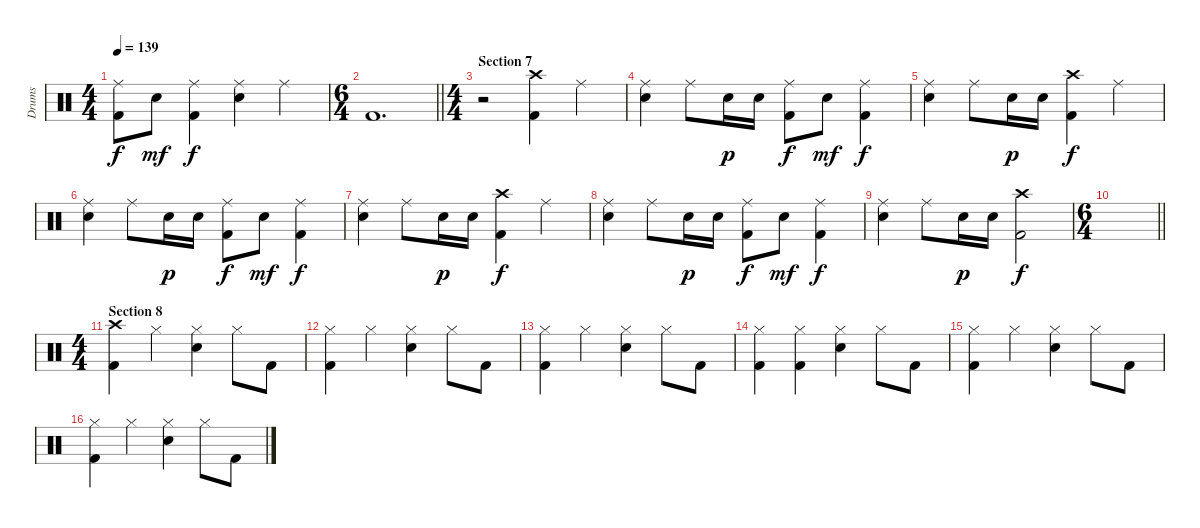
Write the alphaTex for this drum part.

\track ("Drums" "Drums") {instrument percussion}
\staff {score}
\articulation defaults
\ts (4 4)
\tempo 139
\clef neutral
\ks c
("Ride (middle)" "Kick (hit) 2").8{dy f} "Electric Snare (hit)".8{dy mf} ("Ride (middle)" "Kick (hit) 2").4{dy f} ("Ride (middle)" "Electric Snare (hit)").4 "Ride (middle)".4 |
\ts (6 4)
\barLineRight lightlight "Kick (hit) 2".1{d}
|
\ts (4 4)
\section ("" "Section 7")
r.2 ("Crash high (hit)" "Kick (hit) 2").4 "Ride (middle)".4 |
("Ride (middle)" "Electric Snare (hit)").4 "Ride (middle)".8 "Electric Snare (hit)".16{dy p} "Electric Snare (hit)".16 ("Ride (middle)" "Kick (hit) 2").8{dy f} "Electric Snare (hit)".8{dy mf} ("Ride (middle)" "Kick (hit) 2").4{dy f} |
("Ride (middle)" "Electric Snare (hit)").4 "Ride (middle)".8 "Electric Snare (hit)".16{dy p} "Electric Snare (hit)".16 ("Crash high (hit)" "Kick (hit) 2").4{dy f} "Ride (middle)".4 |
("Ride (middle)" "Electric Snare (hit)").4 "Ride (middle)".8 "Electric Snare (hit)".16{dy p} "Electric Snare (hit)".16 ("Ride (middle)" "Kick (hit) 2").8{dy f} "Electric Snare (hit)".8{dy mf} ("Ride (middle)" "Kick (hit) 2").4{dy f} |
("Ride (middle)" "Electric Snare (hit)").4 "Ride (middle)".8 "Electric Snare (hit)".16{dy p} "Electric Snare (hit)".16 ("Crash high (hit)" "Kick (hit) 2").4{dy f} "Ride (middle)".4 |
("Ride (middle)" "Electric Snare (hit)").4 "Ride (middle)".8 "Electric Snare (hit)".16{dy p} "Electric Snare (hit)".16 ("Ride (middle)" "Kick (hit) 2").8{dy f} "Electric Snare (hit)".8{dy mf} ("Ride (middle)" "Kick (hit) 2").4{dy f} |
("Ride (middle)" "Electric Snare (hit)").4 "Ride (middle)".8 "Electric Snare (hit)".16{dy p} "Electric Snare (hit)".16 ("Crash high (hit)" "Kick (hit) 2").2{dy f} |
\ts (6 4)
\barLineRight lightlight
|
\ts (4 4)
\section ("" "Section 8")
("Crash high (hit)" "Kick (hit) 2").4 "Hi-Hat (closed)".4 ("Hi-Hat (closed)" "Electric Snare (hit)").4 "Hi-Hat (closed)".8 "Kick (hit) 2".8 |
("Hi-Hat (closed)" "Kick (hit) 2").4 "Hi-Hat (closed)".4 ("Hi-Hat (closed)" "Electric Snare (hit)").4 "Hi-Hat (closed)".8 "Kick (hit) 2".8 |
("Hi-Hat (closed)" "Kick (hit) 2").4 "Hi-Hat (closed)".4 ("Hi-Hat (closed)" "Electric Snare (hit)").4 "Hi-Hat (closed)".8 "Kick (hit) 2".8 |
("Hi-Hat (closed)" "Kick (hit) 2").4 ("Hi-Hat (closed)" "Kick (hit) 2").4 ("Hi-Hat (closed)" "Electric Snare (hit)").4 "Hi-Hat (closed)".8 "Kick (hit) 2".8 |
("Hi-Hat (closed)" "Kick (hit) 2").4 "Hi-Hat (closed)".4 ("Hi-Hat (closed)" "Electric Snare (hit)").4 "Hi-Hat (closed)".8 "Kick (hit) 2".8 |
("Hi-Hat (closed)" "Kick (hit) 2").4 "Hi-Hat (closed)".4 ("Hi-Hat (closed)" "Electric Snare (hit)").4 "Hi-Hat (closed)".8 "Kick (hit) 2".8
